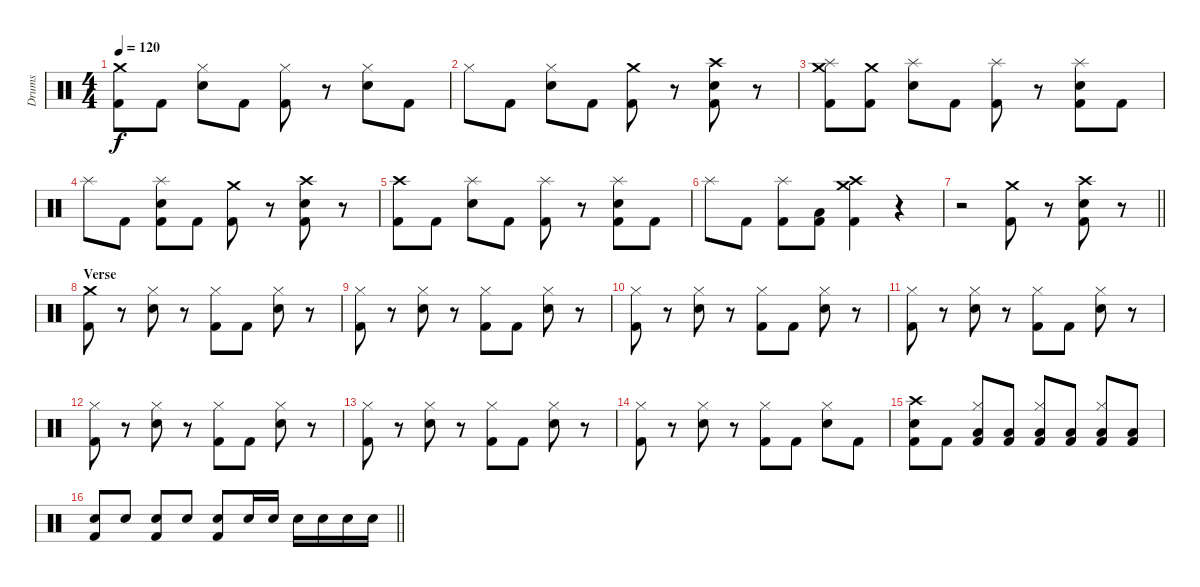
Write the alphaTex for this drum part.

\track ("Drums" "Drums") {instrument percussion}
\staff {score}
\articulation defaults
\ts (4 4)
\tempo 120
\clef neutral
\ks c
("Crash medium (hit)" "Kick (hit) 2").8{dy f} "Kick (hit) 2".8 ("Hi-Hat (closed)" "Electric Snare (hit)").8 "Kick (hit) 2".8 ("Hi-Hat (closed)" "Kick (hit) 2").8 r.8 ("Hi-Hat (closed)" "Electric Snare (hit)").8 "Kick (hit) 2".8 |
"Hi-Hat (closed)".8 "Kick (hit) 2".8 ("Hi-Hat (closed)" "Electric Snare (hit)").8 "Kick (hit) 2".8 ("Crash medium (hit)" "Kick (hit) 2").8 r.8 ("Crash high (hit)" "Electric Snare (hit)" "Kick (hit) 2").8 r.8 |
("Crash medium (hit)" "Splash (hit)" "Kick (hit) 2").8 ("Crash medium (hit)" "Kick (hit) 2").8 ("Splash (hit)" "Electric Snare (hit)").8 "Kick (hit) 2".8 ("Splash (hit)" "Kick (hit) 2").8 r.8 ("Splash (hit)" "Electric Snare (hit)" "Kick (hit) 2").8 "Kick (hit) 2".8 |
"Splash (hit)".8 "Kick (hit) 2".8 ("Splash (hit)" "Electric Snare (hit)" "Kick (hit) 2").8 "Kick (hit) 2".8 ("Crash medium (hit)" "Kick (hit) 2").8 r.8 ("Crash high (hit)" "Electric Snare (hit)" "Kick (hit) 2").8 r.8 |
("Crash high (hit)" "Kick (hit) 2").8 "Kick (hit) 2".8 ("Splash (hit)" "Electric Snare (hit)").8 "Kick (hit) 2".8 ("Splash (hit)" "Kick (hit) 2").8 r.8 ("Splash (hit)" "Electric Snare (hit)" "Kick (hit) 2").8 "Kick (hit) 2".8 |
"Splash (hit)".8 "Kick (hit) 2".8 ("Splash (hit)" "Kick (hit) 2").8 ("Low Floor Tom (hit)" "Kick (hit) 2").8 ("Crash high (hit)" "Crash medium (hit)" "Kick (hit) 2").4 r.4 |
\barLineRight lightlight
r.2 ("Crash medium (hit)" "Kick (hit) 2").8 r.8 ("Crash high (hit)" "Electric Snare (hit)" "Kick (hit) 2").8 r.8 |
\section ("" "Verse")
("Crash medium (hit)" "Kick (hit) 2").8 r.8 ("Hi-Hat (closed)" "Electric Snare (hit)").8 r.8 ("Hi-Hat (closed)" "Kick (hit) 2").8 "Kick (hit) 2".8 ("Hi-Hat (closed)" "Electric Snare (hit)").8 r.8 |
("Hi-Hat (closed)" "Kick (hit) 2").8 r.8 ("Hi-Hat (closed)" "Electric Snare (hit)").8 r.8 ("Hi-Hat (closed)" "Kick (hit) 2").8 "Kick (hit) 2".8 ("Hi-Hat (closed)" "Electric Snare (hit)").8 r.8 |
("Hi-Hat (closed)" "Kick (hit) 2").8 r.8 ("Hi-Hat (closed)" "Electric Snare (hit)").8 r.8 ("Hi-Hat (closed)" "Kick (hit) 2").8 "Kick (hit) 2".8 ("Hi-Hat (closed)" "Electric Snare (hit)").8 r.8 |
("Hi-Hat (closed)" "Kick (hit) 2").8 r.8 ("Hi-Hat (closed)" "Electric Snare (hit)").8 r.8 ("Hi-Hat (closed)" "Kick (hit) 2").8 "Kick (hit) 2".8 ("Hi-Hat (closed)" "Electric Snare (hit)").8 r.8 |
("Hi-Hat (closed)" "Kick (hit) 2").8 r.8 ("Hi-Hat (closed)" "Electric Snare (hit)").8 r.8 ("Hi-Hat (closed)" "Kick (hit) 2").8 "Kick (hit) 2".8 ("Hi-Hat (closed)" "Electric Snare (hit)").8 r.8 |
("Hi-Hat (closed)" "Kick (hit) 2").8 r.8 ("Hi-Hat (closed)" "Electric Snare (hit)").8 r.8 ("Hi-Hat (closed)" "Kick (hit) 2").8 "Kick (hit) 2".8 ("Hi-Hat (closed)" "Electric Snare (hit)").8 r.8 |
("Hi-Hat (closed)" "Kick (hit) 2").8 r.8 ("Hi-Hat (closed)" "Electric Snare (hit)").8 r.8 ("Hi-Hat (closed)" "Kick (hit) 2").8 "Kick (hit) 2".8 ("Hi-Hat (closed)" "Electric Snare (hit)").8 "Kick (hit) 2".8 |
("Crash high (hit)" "Electric Snare (hit)" "Kick (hit) 2").8 "Kick (hit) 2".8 ("Hi-Hat (closed)" "Low Tom (hit)" "Kick (hit) 2").8 ("Low Tom (hit)" "Kick (hit) 2").8 ("Hi-Hat (closed)" "Low Tom (hit)" "Kick (hit) 2").8 ("Low Tom (hit)" "Kick (hit) 2").8 ("Hi-Hat (closed)" "Low Tom (hit)" "Kick (hit) 2").8 ("Low Tom (hit)" "Kick (hit) 2").8 |
\barLineRight lightlight
("Electric Snare (hit)" "Kick (hit) 2").8 "Electric Snare (hit)".8 ("Electric Snare (hit)" "Kick (hit) 2").8 "Electric Snare (hit)".8 ("Electric Snare (hit)" "Kick (hit) 2").8 "Electric Snare (hit)".16 "Electric Snare (hit)".16 "Electric Snare (hit)".16 "Electric Snare (hit)".16 "Electric Snare (hit)".16 "Electric Snare (hit)".16
